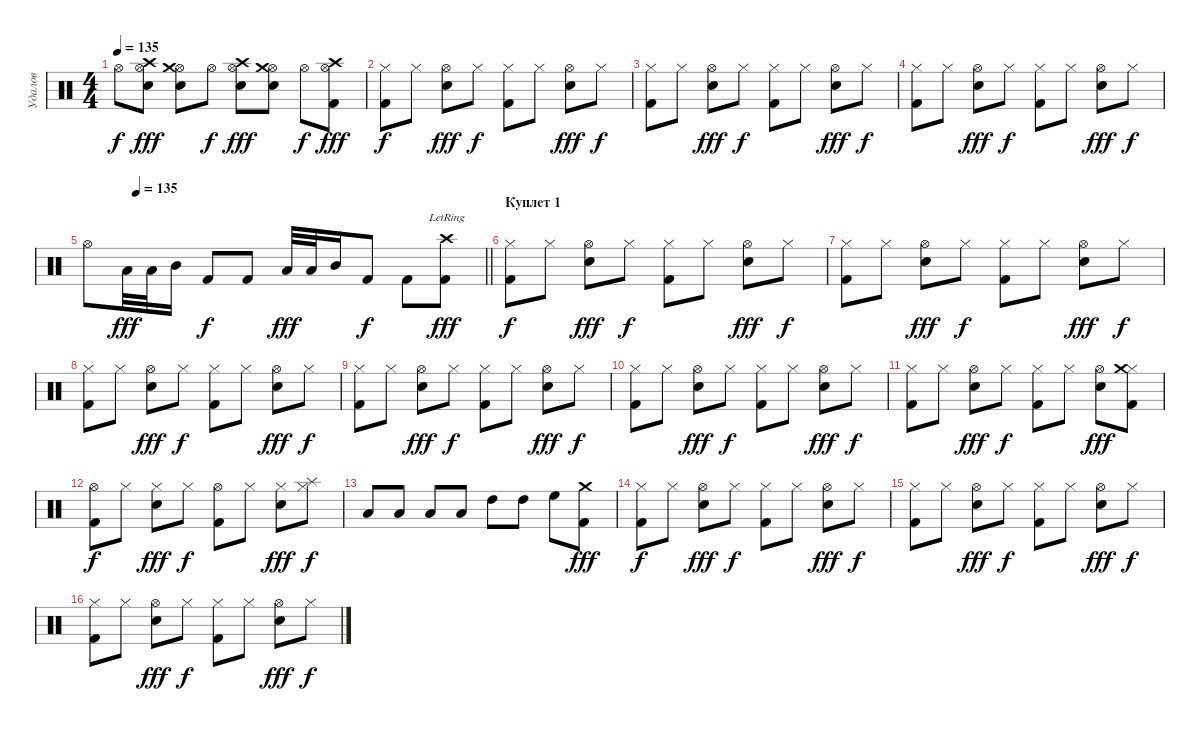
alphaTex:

\track ("Удалов" "Удалов") {instrument percussion}
\staff {score}
\articulation defaults
\ts (4 4)
\tempo 135
\clef neutral
\ks c "Hi-Hat (open)".8{dy f}
("Hi-Hat (open)" "Crash high (hit)" "Snare (hit) 2").8{dy fff} ("Hi-Hat (open)" "Crash medium (hit)" "Snare (hit) 2").8 "Hi-Hat (open)".8{dy f} ("Hi-Hat (open)" "Snare (hit) 2" "Crash high (hit)").8{dy fff} ("Hi-Hat (open)" "Snare (hit) 2" "Crash medium (hit)").8 "Hi-Hat (open)".8{dy f} ("Hi-Hat (open)" "Crash high (hit)" "Kick (hit) 2").8{dy fff} |
("Hi-Hat (closed)" "Kick (hit) 2").8{dy f} "Hi-Hat (closed)".8 ("Hi-Hat (open)" "Snare (hit) 2").8{dy fff} "Hi-Hat (closed)".8{dy f} ("Hi-Hat (closed)" "Kick (hit) 2").8 "Hi-Hat (closed)".8 ("Hi-Hat (open)" "Snare (hit) 2").8{dy fff} "Hi-Hat (closed)".8{dy f} |
("Hi-Hat (closed)" "Kick (hit) 2").8 "Hi-Hat (closed)".8 ("Hi-Hat (open)" "Snare (hit) 2").8{dy fff} "Hi-Hat (closed)".8{dy f} ("Hi-Hat (closed)" "Kick (hit) 2").8 "Hi-Hat (closed)".8 ("Hi-Hat (open)" "Snare (hit) 2").8{dy fff} "Hi-Hat (closed)".8{dy f} |
("Hi-Hat (closed)" "Kick (hit) 2").8 "Hi-Hat (closed)".8 ("Hi-Hat (open)" "Snare (hit) 2").8{dy fff} "Hi-Hat (closed)".8{dy f} ("Hi-Hat (closed)" "Kick (hit) 2").8 "Hi-Hat (closed)".8 ("Hi-Hat (open)" "Snare (hit) 2").8{dy fff} "Hi-Hat (closed)".8{dy f} |
\tempo (135 0.125)
\barLineRight lightlight "Hi-Hat (open)".8 "Low Floor Tom (hit)".32{dy fff} "Low Tom (hit)".32 "Mid Tom (hit)".16 "Kick (hit) 2".8{dy f} "Kick (hit) 2".8 "Low Floor Tom (hit)".32{dy fff} "Low Tom (hit)".32 "Mid Tom (hit)".16 "Kick (hit) 2".8{dy f} "Kick (hit) 2".8
("Crash high (hit)"{lr} "Kick (hit) 2").8{dy fff} |
\section ("" "Куплет 1")
("Hi-Hat (closed)" "Kick (hit) 2").8{dy f} "Hi-Hat (closed)".8 ("Hi-Hat (open)" "Snare (hit) 2").8{dy fff} "Hi-Hat (closed)".8{dy f} ("Hi-Hat (closed)" "Kick (hit) 2").8 "Hi-Hat (closed)".8 ("Hi-Hat (open)" "Snare (hit) 2").8{dy fff} "Hi-Hat (closed)".8{dy f} |
("Hi-Hat (closed)" "Kick (hit) 2").8 "Hi-Hat (closed)".8 ("Hi-Hat (open)" "Snare (hit) 2").8{dy fff} "Hi-Hat (closed)".8{dy f} ("Hi-Hat (closed)" "Kick (hit) 2").8 "Hi-Hat (closed)".8 ("Hi-Hat (open)" "Snare (hit) 2").8{dy fff} "Hi-Hat (closed)".8{dy f} |
("Hi-Hat (closed)" "Kick (hit) 2").8 "Hi-Hat (closed)".8 ("Hi-Hat (open)" "Snare (hit) 2").8{dy fff} "Hi-Hat (closed)".8{dy f} ("Hi-Hat (closed)" "Kick (hit) 2").8 "Hi-Hat (closed)".8 ("Hi-Hat (open)" "Snare (hit) 2").8{dy fff} "Hi-Hat (closed)".8{dy f} |
("Hi-Hat (closed)" "Kick (hit) 2").8 "Hi-Hat (closed)".8 ("Hi-Hat (open)" "Snare (hit) 2").8{dy fff} "Hi-Hat (closed)".8{dy f} ("Hi-Hat (closed)" "Kick (hit) 2").8 "Hi-Hat (closed)".8 ("Hi-Hat (open)" "Snare (hit) 2").8{dy fff} "Hi-Hat (closed)".8{dy f} |
("Hi-Hat (closed)" "Kick (hit) 2").8 "Hi-Hat (closed)".8 ("Hi-Hat (open)" "Snare (hit) 2").8{dy fff} "Hi-Hat (closed)".8{dy f} ("Hi-Hat (closed)" "Kick (hit) 2").8 "Hi-Hat (closed)".8 ("Hi-Hat (open)" "Snare (hit) 2").8{dy fff} "Hi-Hat (closed)".8{dy f} |
("Hi-Hat (closed)" "Kick (hit) 2").8 "Hi-Hat (closed)".8 ("Hi-Hat (open)" "Snare (hit) 2").8{dy fff} "Hi-Hat (closed)".8{dy f} ("Hi-Hat (closed)" "Kick (hit) 2").8 "Hi-Hat (closed)".8 ("Hi-Hat (open)" "Snare (hit) 2").8{dy fff} ("Hi-Hat (closed)" "Kick (hit) 2" "Crash medium (hit)").8 |
("Hi-Hat (open)" "Kick (hit) 2").8{dy f} "Hi-Hat (closed)".8 ("Hi-Hat (closed)" "Snare (hit) 2").8{dy fff} "Hi-Hat (closed)".8{dy f} ("Hi-Hat (open)" "Kick (hit) 2").8 "Hi-Hat (closed)".8 ("Hi-Hat (closed)" "Snare (hit) 2").8{dy fff} ("Hi-Hat (closed)" "Splash (hit)").8{dy f} |
"Low Floor Tom (hit)".8 "Low Floor Tom (hit)".8 "Low Tom (hit)".8 "Low Tom (hit)".8 "High Tom (hit)".8 "High Tom (hit)".8 "High Floor Tom (hit)".8 ("Crash medium (hit)" "Kick (hit) 2").8{dy fff} |
("Hi-Hat (closed)" "Kick (hit) 2").8{dy f} "Hi-Hat (closed)".8 ("Hi-Hat (open)" "Snare (hit) 2").8{dy fff} "Hi-Hat (closed)".8{dy f} ("Hi-Hat (closed)" "Kick (hit) 2").8 "Hi-Hat (closed)".8 ("Hi-Hat (open)" "Snare (hit) 2").8{dy fff} "Hi-Hat (closed)".8{dy f} |
("Hi-Hat (closed)" "Kick (hit) 2").8 "Hi-Hat (closed)".8 ("Hi-Hat (open)" "Snare (hit) 2").8{dy fff} "Hi-Hat (closed)".8{dy f} ("Hi-Hat (closed)" "Kick (hit) 2").8 "Hi-Hat (closed)".8 ("Hi-Hat (open)" "Snare (hit) 2").8{dy fff} "Hi-Hat (closed)".8{dy f} |
("Hi-Hat (closed)" "Kick (hit) 2").8 "Hi-Hat (closed)".8 ("Hi-Hat (open)" "Snare (hit) 2").8{dy fff} "Hi-Hat (closed)".8{dy f} ("Hi-Hat (closed)" "Kick (hit) 2").8 "Hi-Hat (closed)".8 ("Hi-Hat (open)" "Snare (hit) 2").8{dy fff} "Hi-Hat (closed)".8{dy f}
